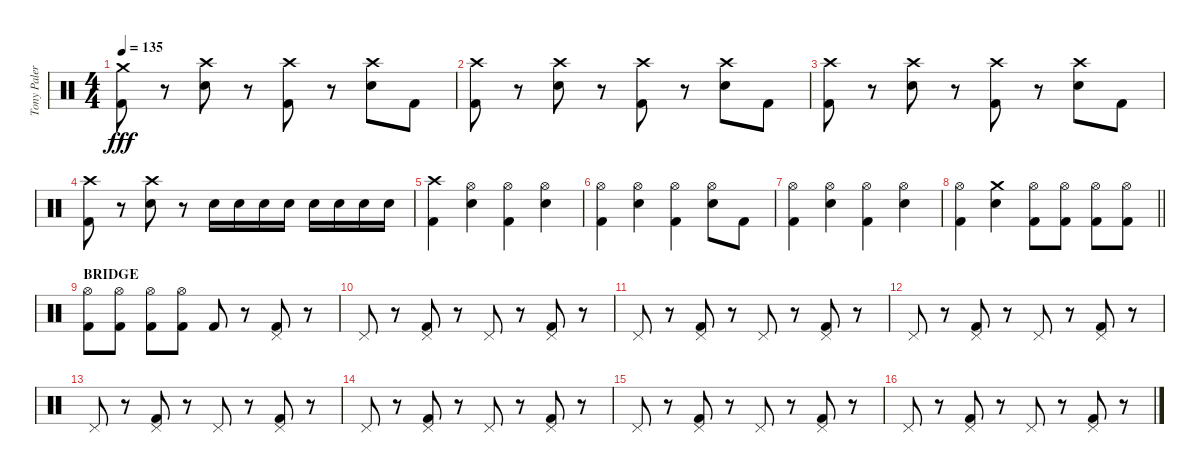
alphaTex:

\track ("Tony Palermo" "Tony Paler") {instrument percussion}
\staff {score}
\articulation defaults
\ts (4 4)
\tempo 135
\clef neutral
\ks c
("Crash medium (hit)" "Kick (hit) 2").8{dy fff} r.8 ("Crash high (hit)" "Snare (hit) 2").8 r.8 ("Crash high (hit)" "Kick (hit) 2").8 r.8 ("Crash high (hit)" "Snare (hit) 2").8 "Kick (hit) 2".8 |
("Crash high (hit)" "Kick (hit) 2").8 r.8 ("Crash high (hit)" "Snare (hit) 2").8 r.8 ("Crash high (hit)" "Kick (hit) 2").8 r.8 ("Crash high (hit)" "Snare (hit) 2").8 "Kick (hit) 2".8 |
("Crash high (hit)" "Kick (hit) 2").8 r.8 ("Crash high (hit)" "Snare (hit) 2").8 r.8 ("Crash high (hit)" "Kick (hit) 2").8 r.8 ("Crash high (hit)" "Snare (hit) 2").8 "Kick (hit) 2".8 |
("Crash high (hit)" "Kick (hit) 2").8 r.8 ("Crash high (hit)" "Snare (hit) 2").8 r.8 "Snare (hit) 2".16 "Snare (hit) 2".16 "Snare (hit) 2".16 "Snare (hit) 2".16 "Snare (hit) 2".16 "Snare (hit) 2".16 "Snare (hit) 2".16 "Snare (hit) 2".16 |
("Crash high (hit)" "Kick (hit) 2").4 ("Hi-Hat (open)" "Snare (hit) 2").4 ("Hi-Hat (open)" "Kick (hit) 2").4 ("Hi-Hat (open)" "Snare (hit) 2").4 |
("Hi-Hat (open)" "Kick (hit) 2").4 ("Hi-Hat (open)" "Snare (hit) 2").4 ("Hi-Hat (open)" "Kick (hit) 2").4 ("Hi-Hat (open)" "Snare (hit) 2").8 "Kick (hit) 2".8 |
("Hi-Hat (open)" "Kick (hit) 2").4 ("Hi-Hat (open)" "Snare (hit) 2").4 ("Hi-Hat (open)" "Kick (hit) 2").4 ("Hi-Hat (open)" "Snare (hit) 2").4 |
\barLineRight lightlight
("Hi-Hat (open)" "Kick (hit) 2").4 ("Crash medium (hit)" "Snare (hit) 2").4 ("Hi-Hat (open)" "Kick (hit) 2").8 ("Hi-Hat (open)" "Kick (hit) 2").8 ("Hi-Hat (open)" "Kick (hit) 2").8 ("Hi-Hat (open)" "Kick (hit) 2").8 |
\section ("" "BRIDGE")
("Hi-Hat (open)" "Kick (hit) 2").8 ("Hi-Hat (open)" "Kick (hit) 2").8 ("Hi-Hat (open)" "Kick (hit) 2").8 ("Hi-Hat (open)" "Kick (hit) 2").8 "Kick (hit) 2".8 r.8 ("Pedal Hi-Hat (hit)" "Kick (hit) 2").8 r.8 |
"Pedal Hi-Hat (hit)".8 r.8 ("Pedal Hi-Hat (hit)" "Kick (hit) 2").8 r.8 "Pedal Hi-Hat (hit)".8 r.8 ("Pedal Hi-Hat (hit)" "Kick (hit) 2").8 r.8 |
"Pedal Hi-Hat (hit)".8 r.8 ("Pedal Hi-Hat (hit)" "Kick (hit) 2").8 r.8 "Pedal Hi-Hat (hit)".8 r.8 ("Pedal Hi-Hat (hit)" "Kick (hit) 2").8 r.8 |
"Pedal Hi-Hat (hit)".8 r.8 ("Pedal Hi-Hat (hit)" "Kick (hit) 2").8 r.8 "Pedal Hi-Hat (hit)".8 r.8 ("Pedal Hi-Hat (hit)" "Kick (hit) 2").8 r.8 |
"Pedal Hi-Hat (hit)".8 r.8 ("Pedal Hi-Hat (hit)" "Kick (hit) 2").8 r.8 "Pedal Hi-Hat (hit)".8 r.8 ("Pedal Hi-Hat (hit)" "Kick (hit) 2").8 r.8 |
"Pedal Hi-Hat (hit)".8 r.8 ("Pedal Hi-Hat (hit)" "Kick (hit) 2").8 r.8 "Pedal Hi-Hat (hit)".8 r.8 ("Pedal Hi-Hat (hit)" "Kick (hit) 2").8 r.8 |
"Pedal Hi-Hat (hit)".8 r.8 ("Pedal Hi-Hat (hit)" "Kick (hit) 2").8 r.8 "Pedal Hi-Hat (hit)".8 r.8 ("Pedal Hi-Hat (hit)" "Kick (hit) 2").8 r.8 |
"Pedal Hi-Hat (hit)".8 r.8 ("Pedal Hi-Hat (hit)" "Kick (hit) 2").8 r.8 "Pedal Hi-Hat (hit)".8 r.8 ("Pedal Hi-Hat (hit)" "Kick (hit) 2").8 r.8
